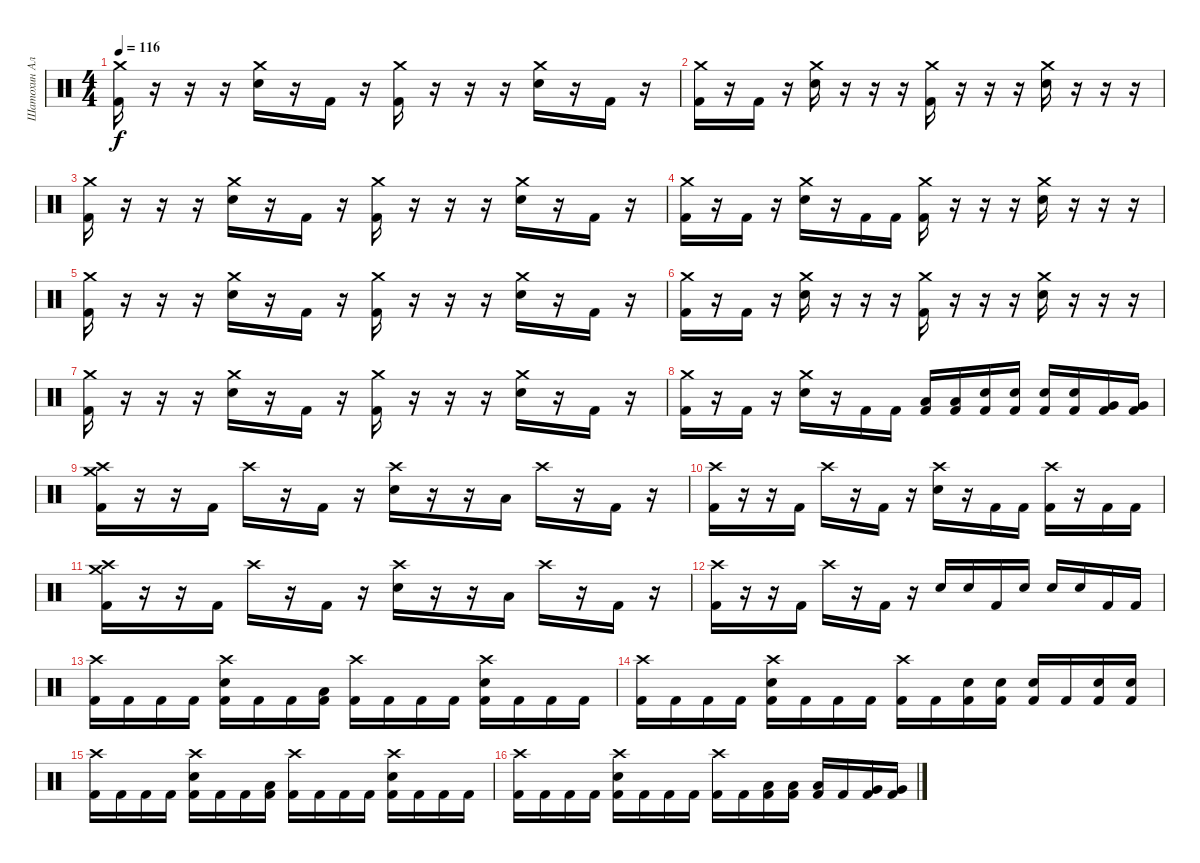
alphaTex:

\track ("Шатохин Алексей" "Шатохин Ал") {instrument percussion}
\staff {score}
\articulation defaults
\ts (4 4)
\tempo 116
\clef neutral
\ks c
("Crash medium (hit)" "Kick (hit) 2").16{dy f} r.16 r.16 r.16 ("Crash medium (hit)" "Electric Snare (hit)").16 r.16 "Kick (hit) 2".16 r.16 ("Crash medium (hit)" "Kick (hit) 2").16 r.16 r.16 r.16 ("Crash medium (hit)" "Electric Snare (hit)").16 r.16 "Kick (hit) 2".16 r.16 |
("Crash medium (hit)" "Kick (hit) 2").16 r.16 "Kick (hit) 2".16 r.16 ("Crash medium (hit)" "Electric Snare (hit)").16 r.16 r.16 r.16 ("Crash medium (hit)" "Kick (hit) 2").16 r.16 r.16 r.16 ("Crash medium (hit)" "Electric Snare (hit)").16 r.16 r.16 r.16 |
("Crash medium (hit)" "Kick (hit) 2").16 r.16 r.16 r.16 ("Crash medium (hit)" "Electric Snare (hit)").16 r.16 "Kick (hit) 2".16 r.16 ("Crash medium (hit)" "Kick (hit) 2").16 r.16 r.16 r.16 ("Crash medium (hit)" "Electric Snare (hit)").16 r.16 "Kick (hit) 2".16 r.16 |
("Crash medium (hit)" "Kick (hit) 2").16 r.16 "Kick (hit) 2".16 r.16 ("Crash medium (hit)" "Electric Snare (hit)").16 r.16 "Kick (hit) 2".16 "Kick (hit) 2".16 ("Crash medium (hit)" "Kick (hit) 2").16 r.16 r.16 r.16 ("Crash medium (hit)" "Electric Snare (hit)").16 r.16 r.16 r.16 |
("Crash medium (hit)" "Kick (hit) 2").16 r.16 r.16 r.16 ("Crash medium (hit)" "Electric Snare (hit)").16 r.16 "Kick (hit) 2".16 r.16 ("Crash medium (hit)" "Kick (hit) 2").16 r.16 r.16 r.16 ("Crash medium (hit)" "Electric Snare (hit)").16 r.16 "Kick (hit) 2".16 r.16 |
("Crash medium (hit)" "Kick (hit) 2").16 r.16 "Kick (hit) 2".16 r.16 ("Crash medium (hit)" "Electric Snare (hit)").16 r.16 r.16 r.16 ("Crash medium (hit)" "Kick (hit) 2").16 r.16 r.16 r.16 ("Crash medium (hit)" "Electric Snare (hit)").16 r.16 r.16 r.16 |
("Crash medium (hit)" "Kick (hit) 2").16 r.16 r.16 r.16 ("Crash medium (hit)" "Electric Snare (hit)").16 r.16 "Kick (hit) 2".16 r.16 ("Crash medium (hit)" "Kick (hit) 2").16 r.16 r.16 r.16 ("Crash medium (hit)" "Electric Snare (hit)").16 r.16 "Kick (hit) 2".16 r.16 |
("Crash medium (hit)" "Kick (hit) 2").16 r.16 "Kick (hit) 2".16 r.16 ("Crash medium (hit)" "Electric Snare (hit)").16 r.16 "Kick (hit) 2".16 "Kick (hit) 2".16 ("Low Tom (hit)" "Kick (hit) 2").16 ("Low Tom (hit)" "Kick (hit) 2").16 ("Electric Snare (hit)" "Kick (hit) 2").16 ("Electric Snare (hit)" "Kick (hit) 2").16 ("Electric Snare (hit)" "Kick (hit) 2").16 ("Electric Snare (hit)" "Kick (hit) 2").16 ("Very Low Tom (hit)" "Kick (hit) 2").16 ("Very Low Tom (hit)" "Kick (hit) 2").16 |
("Crash medium (hit)" "Crash high (hit)" "Kick (hit) 2").16 r.16 r.16 "Kick (hit) 2".16 "Crash high (hit)".16 r.16 "Kick (hit) 2".16 r.16 ("Crash high (hit)" "Electric Snare (hit)").16 r.16 r.16 "Low Tom (hit)".16 "Crash high (hit)".16 r.16 "Kick (hit) 2".16 r.16 |
("Crash high (hit)" "Kick (hit) 2").16 r.16 r.16 "Kick (hit) 2".16 "Crash high (hit)".16 r.16 "Kick (hit) 2".16 r.16 ("Crash high (hit)" "Electric Snare (hit)").16 r.16 "Kick (hit) 2".16 "Kick (hit) 2".16 ("Crash high (hit)" "Kick (hit) 2").16 r.16 "Kick (hit) 2".16 "Kick (hit) 2".16 |
("Crash medium (hit)" "Crash high (hit)" "Kick (hit) 2").16 r.16 r.16 "Kick (hit) 2".16 "Crash high (hit)".16 r.16 "Kick (hit) 2".16 r.16 ("Crash high (hit)" "Electric Snare (hit)").16 r.16 r.16 "Low Tom (hit)".16 "Crash high (hit)".16 r.16 "Kick (hit) 2".16 r.16 |
("Crash high (hit)" "Kick (hit) 2").16 r.16 r.16 "Kick (hit) 2".16 "Crash high (hit)".16 r.16 "Kick (hit) 2".16 r.16 "Electric Snare (hit)".16 "Electric Snare (hit)".16 "Kick (hit) 2".16 "Electric Snare (hit)".16 "Electric Snare (hit)".16 "Electric Snare (hit)".16 "Kick (hit) 2".16 "Kick (hit) 2".16 |
("Crash high (hit)" "Kick (hit) 2").16 "Kick (hit) 2".16 "Kick (hit) 2".16 "Kick (hit) 2".16 ("Crash high (hit)" "Kick (hit) 2" "Electric Snare (hit)").16 "Kick (hit) 2".16 "Kick (hit) 2".16 ("Low Tom (hit)" "Kick (hit) 2").16 ("Crash high (hit)" "Kick (hit) 2").16 "Kick (hit) 2".16 "Kick (hit) 2".16 "Kick (hit) 2".16 ("Crash high (hit)" "Electric Snare (hit)" "Kick (hit) 2").16 "Kick (hit) 2".16 "Kick (hit) 2".16 "Kick (hit) 2".16 |
("Crash high (hit)" "Kick (hit) 2").16 "Kick (hit) 2".16 "Kick (hit) 2".16 "Kick (hit) 2".16 ("Crash high (hit)" "Kick (hit) 2" "Electric Snare (hit)").16 "Kick (hit) 2".16 "Kick (hit) 2".16 "Kick (hit) 2".16 ("Crash high (hit)" "Kick (hit) 2").16 "Kick (hit) 2".16 ("Electric Snare (hit)" "Kick (hit) 2").16 ("Electric Snare (hit)" "Kick (hit) 2").16 ("Electric Snare (hit)" "Kick (hit) 2").16 "Kick (hit) 2".16 ("Electric Snare (hit)" "Kick (hit) 2").16 ("Electric Snare (hit)" "Kick (hit) 2").16 |
("Crash high (hit)" "Kick (hit) 2").16 "Kick (hit) 2".16 "Kick (hit) 2".16 "Kick (hit) 2".16 ("Crash high (hit)" "Kick (hit) 2" "Electric Snare (hit)").16 "Kick (hit) 2".16 "Kick (hit) 2".16 ("Low Tom (hit)" "Kick (hit) 2").16 ("Crash high (hit)" "Kick (hit) 2").16 "Kick (hit) 2".16 "Kick (hit) 2".16 "Kick (hit) 2".16 ("Crash high (hit)" "Electric Snare (hit)" "Kick (hit) 2").16 "Kick (hit) 2".16 "Kick (hit) 2".16 "Kick (hit) 2".16 |
("Crash high (hit)" "Kick (hit) 2").16 "Kick (hit) 2".16 "Kick (hit) 2".16 "Kick (hit) 2".16 ("Crash high (hit)" "Kick (hit) 2" "Electric Snare (hit)").16 "Kick (hit) 2".16 "Kick (hit) 2".16 "Kick (hit) 2".16 ("Crash high (hit)" "Kick (hit) 2").16 "Kick (hit) 2".16 ("Low Tom (hit)" "Kick (hit) 2").16 ("Low Tom (hit)" "Kick (hit) 2").16 ("Low Tom (hit)" "Kick (hit) 2").16 "Kick (hit) 2".16 ("Very Low Tom (hit)" "Kick (hit) 2").16 ("Very Low Tom (hit)" "Kick (hit) 2").16
